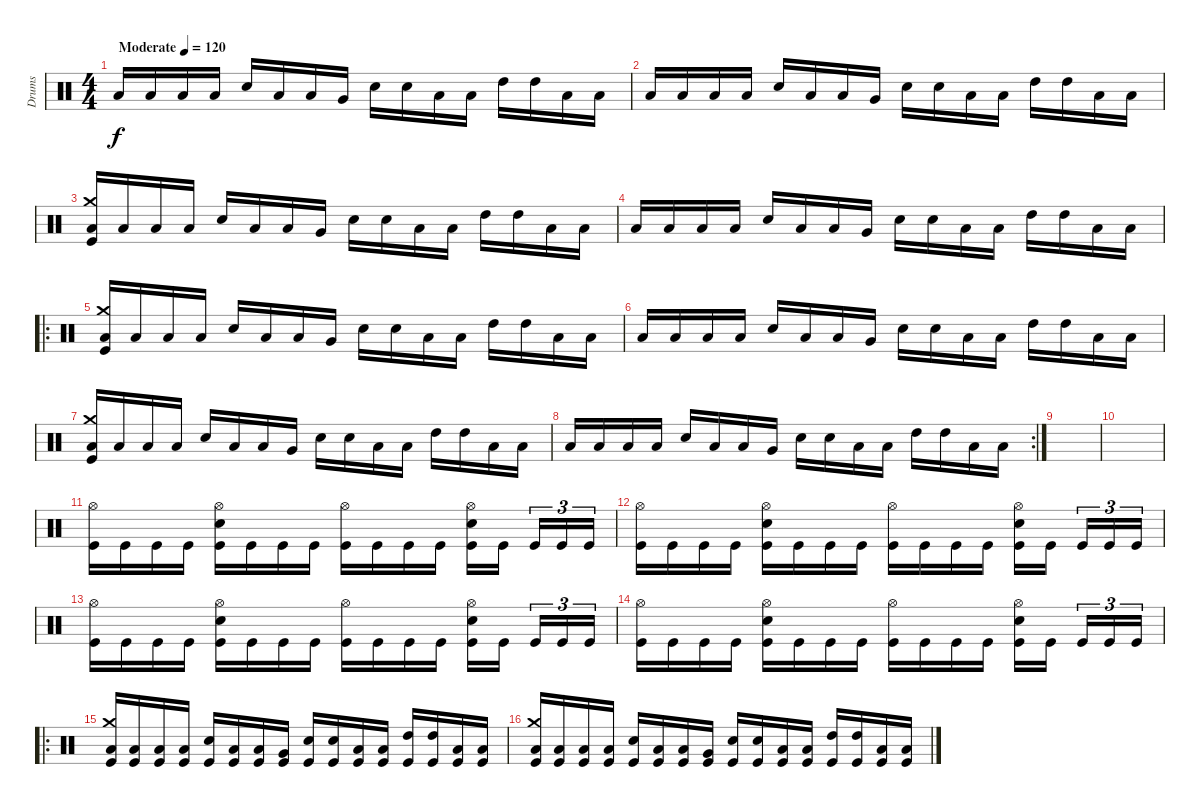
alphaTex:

\track ("Drums" "Drums") {instrument percussion}
\staff {score}
\articulation defaults
\ts (4 4)
\tempo (120 "Moderate")
\clef neutral
\ks c "Low Floor Tom (hit)".16{dy f} "Low Floor Tom (hit)".16 "Low Floor Tom (hit)".16 "Low Floor Tom (hit)".16 "Snare (hit) 2".16 "Low Floor Tom (hit)".16 "Low Tom (hit)".16 "Very Low Tom (hit)".16 "Snare (hit) 2".16 "Snare (hit) 2".16 "Low Tom (hit)".16 "Low Tom (hit)".16 "High Tom (hit)".16 "High Tom (hit)".16 "Low Tom (hit)".16 "Low Tom (hit)".16
|
"Low Floor Tom (hit)".16 "Low Floor Tom (hit)".16 "Low Floor Tom (hit)".16 "Low Floor Tom (hit)".16 "Snare (hit) 2".16 "Low Floor Tom (hit)".16 "Low Tom (hit)".16 "Very Low Tom (hit)".16 "Snare (hit) 2".16 "Snare (hit) 2".16 "Low Tom (hit)".16 "Low Tom (hit)".16 "High Tom (hit)".16 "High Tom (hit)".16 "Low Tom (hit)".16 "Low Tom (hit)".16 |
("Crash medium (hit)" "Low Floor Tom (hit)" "Kick (hit)").16 "Low Floor Tom (hit)".16 "Low Floor Tom (hit)".16 "Low Floor Tom (hit)".16 "Snare (hit) 2".16 "Low Floor Tom (hit)".16 "Low Tom (hit)".16 "Very Low Tom (hit)".16 "Snare (hit) 2".16 "Snare (hit) 2".16 "Low Tom (hit)".16 "Low Tom (hit)".16 "High Tom (hit)".16 "High Tom (hit)".16 "Low Tom (hit)".16 "Low Tom (hit)".16 |
"Low Floor Tom (hit)".16 "Low Floor Tom (hit)".16 "Low Floor Tom (hit)".16 "Low Floor Tom (hit)".16 "Snare (hit) 2".16 "Low Floor Tom (hit)".16 "Low Tom (hit)".16 "Very Low Tom (hit)".16 "Snare (hit) 2".16 "Snare (hit) 2".16 "Low Tom (hit)".16 "Low Tom (hit)".16 "High Tom (hit)".16 "High Tom (hit)".16 "Low Tom (hit)".16 "Low Tom (hit)".16 |
\ro
("Crash medium (hit)" "Low Floor Tom (hit)" "Kick (hit)").16 "Low Floor Tom (hit)".16 "Low Floor Tom (hit)".16 "Low Floor Tom (hit)".16 "Snare (hit) 2".16 "Low Floor Tom (hit)".16 "Low Tom (hit)".16 "Very Low Tom (hit)".16 "Snare (hit) 2".16 "Snare (hit) 2".16 "Low Tom (hit)".16 "Low Tom (hit)".16 "High Tom (hit)".16 "High Tom (hit)".16 "Low Tom (hit)".16 "Low Tom (hit)".16 |
"Low Floor Tom (hit)".16 "Low Floor Tom (hit)".16 "Low Floor Tom (hit)".16 "Low Floor Tom (hit)".16 "Snare (hit) 2".16 "Low Floor Tom (hit)".16 "Low Tom (hit)".16 "Very Low Tom (hit)".16 "Snare (hit) 2".16 "Snare (hit) 2".16 "Low Tom (hit)".16 "Low Tom (hit)".16 "High Tom (hit)".16 "High Tom (hit)".16 "Low Tom (hit)".16 "Low Tom (hit)".16 |
("Crash medium (hit)" "Low Floor Tom (hit)" "Kick (hit)").16 "Low Floor Tom (hit)".16 "Low Floor Tom (hit)".16 "Low Floor Tom (hit)".16 "Snare (hit) 2".16 "Low Floor Tom (hit)".16 "Low Tom (hit)".16 "Very Low Tom (hit)".16 "Snare (hit) 2".16 "Snare (hit) 2".16 "Low Tom (hit)".16 "Low Tom (hit)".16 "High Tom (hit)".16 "High Tom (hit)".16 "Low Tom (hit)".16 "Low Tom (hit)".16 |
\rc 2 "Low Floor Tom (hit)".16 "Low Floor Tom (hit)".16 "Low Floor Tom (hit)".16 "Low Floor Tom (hit)".16 "Snare (hit) 2".16 "Low Floor Tom (hit)".16 "Low Tom (hit)".16 "Very Low Tom (hit)".16 "Snare (hit) 2".16 "Snare (hit) 2".16 "Low Tom (hit)".16 "Low Tom (hit)".16 "High Tom (hit)".16 "High Tom (hit)".16 "Low Tom (hit)".16 "Low Tom (hit)".16
|
|
|
("Hi-Hat (open)" "Kick (hit)").16 "Kick (hit)".16 "Kick (hit)".16 "Kick (hit)".16 ("Hi-Hat (open)" "Snare (hit) 2" "Kick (hit)").16 "Kick (hit)".16 "Kick (hit)".16 "Kick (hit)".16 ("Hi-Hat (open)" "Kick (hit)").16 "Kick (hit)".16 "Kick (hit)".16 "Kick (hit)".16 ("Hi-Hat (open)" "Snare (hit) 2" "Kick (hit)").16 "Kick (hit)".16{beam splitsecondary} "Kick (hit)".16{tu (3 2)} "Kick (hit)".16{tu (3 2)} "Kick (hit)".16{tu (3 2)} |
("Hi-Hat (open)" "Kick (hit)").16 "Kick (hit)".16 "Kick (hit)".16 "Kick (hit)".16 ("Hi-Hat (open)" "Snare (hit) 2" "Kick (hit)").16 "Kick (hit)".16 "Kick (hit)".16 "Kick (hit)".16 ("Hi-Hat (open)" "Kick (hit)").16 "Kick (hit)".16 "Kick (hit)".16 "Kick (hit)".16 ("Hi-Hat (open)" "Snare (hit) 2" "Kick (hit)").16 "Kick (hit)".16{beam splitsecondary} "Kick (hit)".16{tu (3 2)} "Kick (hit)".16{tu (3 2)} "Kick (hit)".16{tu (3 2)} |
("Hi-Hat (open)" "Kick (hit)").16 "Kick (hit)".16 "Kick (hit)".16 "Kick (hit)".16 ("Hi-Hat (open)" "Snare (hit) 2" "Kick (hit)").16 "Kick (hit)".16 "Kick (hit)".16 "Kick (hit)".16 ("Hi-Hat (open)" "Kick (hit)").16 "Kick (hit)".16 "Kick (hit)".16 "Kick (hit)".16 ("Hi-Hat (open)" "Snare (hit) 2" "Kick (hit)").16 "Kick (hit)".16{beam splitsecondary} "Kick (hit)".16{tu (3 2)} "Kick (hit)".16{tu (3 2)} "Kick (hit)".16{tu (3 2)} |
("Hi-Hat (open)" "Kick (hit)").16 "Kick (hit)".16 "Kick (hit)".16 "Kick (hit)".16 ("Hi-Hat (open)" "Snare (hit) 2" "Kick (hit)").16 "Kick (hit)".16 "Kick (hit)".16 "Kick (hit)".16 ("Hi-Hat (open)" "Kick (hit)").16 "Kick (hit)".16 "Kick (hit)".16 "Kick (hit)".16 ("Hi-Hat (open)" "Snare (hit) 2" "Kick (hit)").16 "Kick (hit)".16{beam splitsecondary} "Kick (hit)".16{tu (3 2)} "Kick (hit)".16{tu (3 2)} "Kick (hit)".16{tu (3 2)} |
\ro
("Crash medium (hit)" "Low Floor Tom (hit)" "Kick (hit)").16 ("Low Floor Tom (hit)" "Kick (hit)").16 ("Low Floor Tom (hit)" "Kick (hit)").16 ("Low Floor Tom (hit)" "Kick (hit)").16 ("Snare (hit) 2" "Kick (hit)").16 ("Low Floor Tom (hit)" "Kick (hit)").16 ("Low Tom (hit)" "Kick (hit)").16 ("Very Low Tom (hit)" "Kick (hit)").16 ("Snare (hit) 2" "Kick (hit)").16 ("Snare (hit) 2" "Kick (hit)").16 ("Low Tom (hit)" "Kick (hit)").16 ("Low Tom (hit)" "Kick (hit)").16 ("High Tom (hit)" "Kick (hit)").16 ("High Tom (hit)" "Kick (hit)").16 ("Low Tom (hit)" "Kick (hit)").16 ("Low Tom (hit)" "Kick (hit)").16 |
("Crash medium (hit)" "Low Floor Tom (hit)" "Kick (hit)").16 ("Low Floor Tom (hit)" "Kick (hit)").16 ("Low Floor Tom (hit)" "Kick (hit)").16 ("Low Floor Tom (hit)" "Kick (hit)").16 ("Snare (hit) 2" "Kick (hit)").16 ("Low Floor Tom (hit)" "Kick (hit)").16 ("Low Tom (hit)" "Kick (hit)").16 ("Very Low Tom (hit)" "Kick (hit)").16 ("Snare (hit) 2" "Kick (hit)").16 ("Snare (hit) 2" "Kick (hit)").16 ("Low Tom (hit)" "Kick (hit)").16 ("Low Tom (hit)" "Kick (hit)").16 ("High Tom (hit)" "Kick (hit)").16 ("High Tom (hit)" "Kick (hit)").16 ("Low Tom (hit)" "Kick (hit)").16 ("Low Tom (hit)" "Kick (hit)").16
